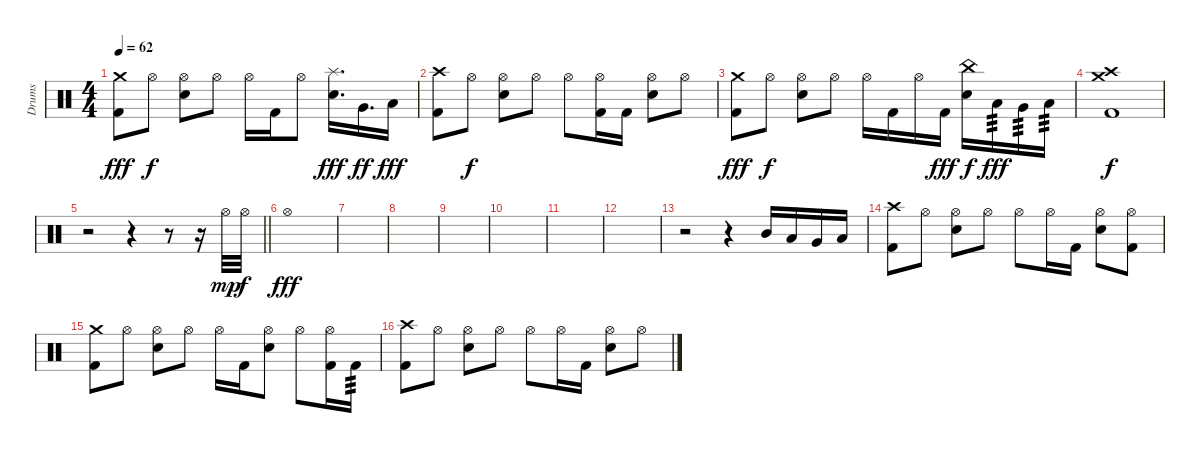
\track ("Drums" "Drums") {instrument percussion}
\staff {score}
\articulation defaults
\ts (4 4)
\tempo 62
\clef neutral
\ks c
("Kick (hit) 2" "Crash medium (hit)").8{dy fff} "Hi-Hat (open)".8{dy f} ("Electric Snare (hit)" "Hi-Hat (open)").8 "Hi-Hat (open)".8 "Hi-Hat (open)".16 "Kick (hit) 2".16 "Hi-Hat (open)".8 ("Electric Snare (hit)" "Splash (hit)").16{d dy fff} "Very Low Tom (hit)".16{d dy ff} "Low Floor Tom (hit)".16{dy fff} |
("Kick (hit) 2" "Crash high (hit)").8 "Hi-Hat (open)".8{dy f} ("Electric Snare (hit)" "Hi-Hat (open)").8 "Hi-Hat (open)".8 "Hi-Hat (open)".8 ("Kick (hit) 2" "Hi-Hat (open)").16 "Kick (hit) 2".16 ("Electric Snare (hit)" "Hi-Hat (open)").8 "Hi-Hat (open)".8 |
("Kick (hit) 2" "Crash medium (hit)").8{dy fff} "Hi-Hat (open)".8{dy f} ("Electric Snare (hit)" "Hi-Hat (open)").8 "Hi-Hat (open)".8 "Hi-Hat (open)".16 "Kick (hit) 2".16 "Hi-Hat (open)".16 "Kick (hit) 2".16{dy fff} ("Electric Snare (hit)" "China (hit)").16{dy f} "Low Tom (hit)".16{tp 3 dy fff} "Very Low Tom (hit)".16{tp 3} "Low Floor Tom (hit)".16{tp 3} |
("Kick (hit) 2" "Crash high (hit)" "Crash medium (hit)").1{dy f} |
\barLineRight lightlight
r.2 r.4 r.8 r.16 "Hi-Hat (open)".32{dy mp} "Hi-Hat (open)".32{dy f} |
"Hi-Hat (open)".1{dy fff} |
|
|
|
|
|
|
r.2 r.4 "Mid Tom (hit)".16 "Low Tom (hit)".16 "Very Low Tom (hit)".16 "Low Floor Tom (hit)".16 |
("Kick (hit) 2" "Crash high (hit)").8 "Hi-Hat (open)".8 ("Electric Snare (hit)" "Hi-Hat (open)").8 "Hi-Hat (open)".8 "Hi-Hat (open)".8 "Hi-Hat (open)".16 "Kick (hit) 2".16 ("Electric Snare (hit)" "Hi-Hat (open)").8 ("Kick (hit) 2" "Hi-Hat (open)").8 |
("Kick (hit) 2" "Crash medium (hit)").8 "Hi-Hat (open)".8 ("Electric Snare (hit)" "Hi-Hat (open)").8 "Hi-Hat (open)".8 "Hi-Hat (open)".16 "Kick (hit) 2".16 ("Electric Snare (hit)" "Hi-Hat (open)").8 "Hi-Hat (open)".8 ("Kick (hit) 2" "Hi-Hat (open)").16 "Kick (hit) 2".16{tp 3} |
("Kick (hit) 2" "Crash high (hit)").8 "Hi-Hat (open)".8 ("Electric Snare (hit)" "Hi-Hat (open)").8 "Hi-Hat (open)".8 "Hi-Hat (open)".8 "Hi-Hat (open)".16 "Kick (hit) 2".16 ("Electric Snare (hit)" "Hi-Hat (open)").8 "Hi-Hat (open)".8
